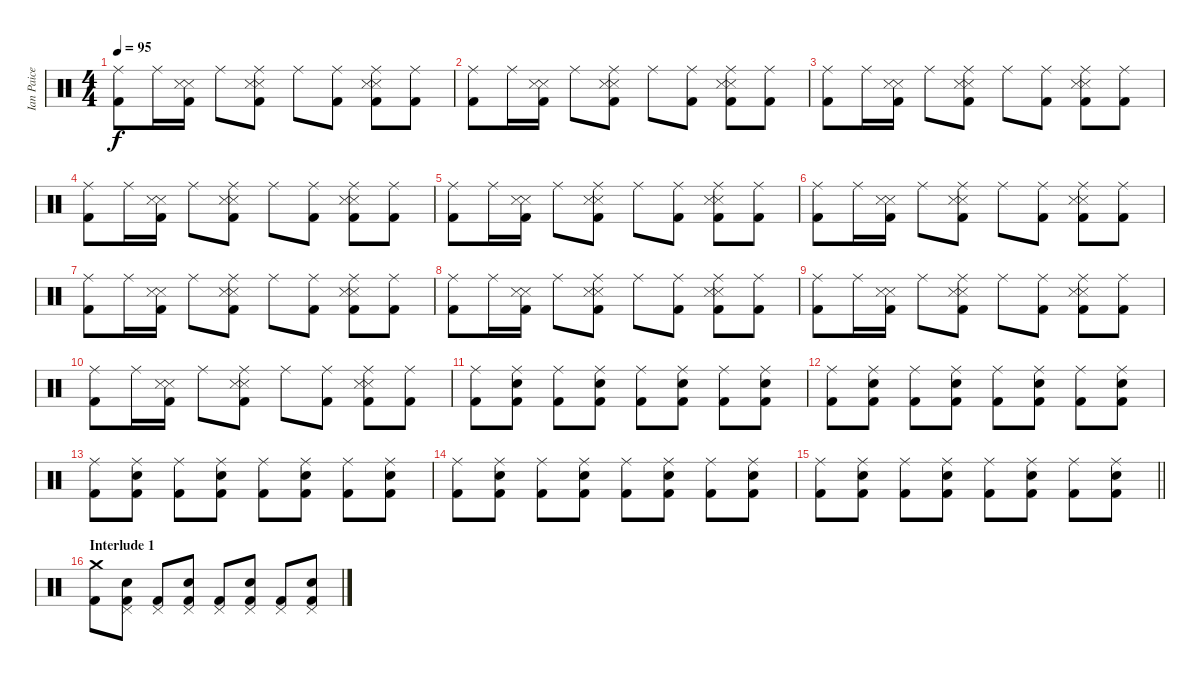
\track ("Ian Paice - Drums" "Ian Paice ") {instrument percussion}
\staff {score}
\articulation defaults
\ts (4 4)
\tempo 95
\clef neutral
\ks c
("Kick (hit) 2" "Ride (middle)").8{dy f} "Ride (middle)".16 ("Kick (hit) 2" "Snare (side stick) 3" "Metronome (hit)").16 "Ride (middle)".8 ("Kick (hit) 2" "Ride (middle)" "Snare (side stick) 3" "Metronome (hit)").8 "Ride (middle)".8 ("Kick (hit) 2" "Ride (middle)").8 ("Kick (hit) 2" "Ride (middle)" "Metronome (hit)" "Snare (side stick) 3").8 ("Kick (hit) 2" "Ride (middle)").8 |
("Kick (hit) 2" "Ride (middle)").8 "Ride (middle)".16 ("Kick (hit) 2" "Snare (side stick) 3" "Metronome (hit)").16 "Ride (middle)".8 ("Kick (hit) 2" "Ride (middle)" "Snare (side stick) 3" "Metronome (hit)").8 "Ride (middle)".8 ("Kick (hit) 2" "Ride (middle)").8 ("Kick (hit) 2" "Ride (middle)" "Metronome (hit)" "Snare (side stick) 3").8 ("Kick (hit) 2" "Ride (middle)").8 |
("Kick (hit) 2" "Ride (middle)").8 "Ride (middle)".16 ("Kick (hit) 2" "Snare (side stick) 3" "Metronome (hit)").16 "Ride (middle)".8 ("Kick (hit) 2" "Ride (middle)" "Snare (side stick) 3" "Metronome (hit)").8 "Ride (middle)".8 ("Kick (hit) 2" "Ride (middle)").8 ("Kick (hit) 2" "Ride (middle)" "Metronome (hit)" "Snare (side stick) 3").8 ("Kick (hit) 2" "Ride (middle)").8 |
("Kick (hit) 2" "Ride (middle)").8 "Ride (middle)".16 ("Kick (hit) 2" "Snare (side stick) 3" "Metronome (hit)").16 "Ride (middle)".8 ("Kick (hit) 2" "Ride (middle)" "Snare (side stick) 3" "Metronome (hit)").8 "Ride (middle)".8 ("Kick (hit) 2" "Ride (middle)").8 ("Kick (hit) 2" "Ride (middle)" "Metronome (hit)" "Snare (side stick) 3").8 ("Kick (hit) 2" "Ride (middle)").8 |
("Kick (hit) 2" "Ride (middle)").8 "Ride (middle)".16 ("Kick (hit) 2" "Snare (side stick) 3" "Metronome (hit)").16 "Ride (middle)".8 ("Kick (hit) 2" "Ride (middle)" "Snare (side stick) 3" "Metronome (hit)").8 "Ride (middle)".8 ("Kick (hit) 2" "Ride (middle)").8 ("Kick (hit) 2" "Ride (middle)" "Metronome (hit)" "Snare (side stick) 3").8 ("Kick (hit) 2" "Ride (middle)").8 |
("Kick (hit) 2" "Ride (middle)").8 "Ride (middle)".16 ("Kick (hit) 2" "Snare (side stick) 3" "Metronome (hit)").16 "Ride (middle)".8 ("Kick (hit) 2" "Ride (middle)" "Snare (side stick) 3" "Metronome (hit)").8 "Ride (middle)".8 ("Kick (hit) 2" "Ride (middle)").8 ("Kick (hit) 2" "Ride (middle)" "Metronome (hit)" "Snare (side stick) 3").8 ("Kick (hit) 2" "Ride (middle)").8 |
("Kick (hit) 2" "Ride (middle)").8 "Ride (middle)".16 ("Kick (hit) 2" "Snare (side stick) 3" "Metronome (hit)").16 "Ride (middle)".8 ("Kick (hit) 2" "Ride (middle)" "Snare (side stick) 3" "Metronome (hit)").8 "Ride (middle)".8 ("Kick (hit) 2" "Ride (middle)").8 ("Kick (hit) 2" "Ride (middle)" "Metronome (hit)" "Snare (side stick) 3").8 ("Kick (hit) 2" "Ride (middle)").8 |
("Kick (hit) 2" "Ride (middle)").8 "Ride (middle)".16 ("Kick (hit) 2" "Snare (side stick) 3" "Metronome (hit)").16 "Ride (middle)".8 ("Kick (hit) 2" "Ride (middle)" "Snare (side stick) 3" "Metronome (hit)").8 "Ride (middle)".8 ("Kick (hit) 2" "Ride (middle)").8 ("Kick (hit) 2" "Ride (middle)" "Metronome (hit)" "Snare (side stick) 3").8 ("Kick (hit) 2" "Ride (middle)").8 |
("Kick (hit) 2" "Ride (middle)").8 "Ride (middle)".16 ("Kick (hit) 2" "Snare (side stick) 3" "Metronome (hit)").16 "Ride (middle)".8 ("Kick (hit) 2" "Ride (middle)" "Snare (side stick) 3" "Metronome (hit)").8 "Ride (middle)".8 ("Kick (hit) 2" "Ride (middle)").8 ("Kick (hit) 2" "Ride (middle)" "Metronome (hit)" "Snare (side stick) 3").8 ("Kick (hit) 2" "Ride (middle)").8 |
("Kick (hit) 2" "Ride (middle)").8 "Ride (middle)".16 ("Kick (hit) 2" "Snare (side stick) 3" "Metronome (hit)").16 "Ride (middle)".8 ("Kick (hit) 2" "Ride (middle)" "Snare (side stick) 3" "Metronome (hit)").8 "Ride (middle)".8 ("Kick (hit) 2" "Ride (middle)").8 ("Kick (hit) 2" "Ride (middle)" "Metronome (hit)" "Snare (side stick) 3").8 ("Kick (hit) 2" "Ride (middle)").8 |
("Kick (hit) 2" "Ride (middle)").8 ("Kick (hit) 2" "Ride (middle)" "Electric Snare (hit)").8 ("Kick (hit) 2" "Ride (middle)").8 ("Kick (hit) 2" "Ride (middle)" "Electric Snare (hit)").8 ("Kick (hit) 2" "Ride (middle)").8 ("Kick (hit) 2" "Ride (middle)" "Electric Snare (hit)").8 ("Kick (hit) 2" "Ride (middle)").8 ("Kick (hit) 2" "Ride (middle)" "Electric Snare (hit)").8 |
("Kick (hit) 2" "Ride (middle)").8 ("Kick (hit) 2" "Ride (middle)" "Electric Snare (hit)").8 ("Kick (hit) 2" "Ride (middle)").8 ("Kick (hit) 2" "Ride (middle)" "Electric Snare (hit)").8 ("Kick (hit) 2" "Ride (middle)").8 ("Kick (hit) 2" "Ride (middle)" "Electric Snare (hit)").8 ("Kick (hit) 2" "Ride (middle)").8 ("Kick (hit) 2" "Ride (middle)" "Electric Snare (hit)").8 |
("Kick (hit) 2" "Ride (middle)").8 ("Kick (hit) 2" "Ride (middle)" "Electric Snare (hit)").8 ("Kick (hit) 2" "Ride (middle)").8 ("Kick (hit) 2" "Ride (middle)" "Electric Snare (hit)").8 ("Kick (hit) 2" "Ride (middle)").8 ("Kick (hit) 2" "Ride (middle)" "Electric Snare (hit)").8 ("Kick (hit) 2" "Ride (middle)").8 ("Kick (hit) 2" "Ride (middle)" "Electric Snare (hit)").8 |
("Kick (hit) 2" "Ride (middle)").8 ("Kick (hit) 2" "Ride (middle)" "Electric Snare (hit)").8 ("Kick (hit) 2" "Ride (middle)").8 ("Kick (hit) 2" "Ride (middle)" "Electric Snare (hit)").8 ("Kick (hit) 2" "Ride (middle)").8 ("Kick (hit) 2" "Ride (middle)" "Electric Snare (hit)").8 ("Kick (hit) 2" "Ride (middle)").8 ("Kick (hit) 2" "Ride (middle)" "Electric Snare (hit)").8 |
\barLineRight lightlight
("Kick (hit) 2" "Ride (middle)").8 ("Kick (hit) 2" "Ride (middle)" "Electric Snare (hit)").8 ("Kick (hit) 2" "Ride (middle)").8 ("Kick (hit) 2" "Ride (middle)" "Electric Snare (hit)").8 ("Kick (hit) 2" "Ride (middle)").8 ("Kick (hit) 2" "Ride (middle)" "Electric Snare (hit)").8 ("Kick (hit) 2" "Ride (middle)").8 ("Kick (hit) 2" "Ride (middle)" "Electric Snare (hit)").8 |
\section ("" "Interlude 1")
("Kick (hit) 2" "Crash medium (hit)").8 ("Kick (hit) 2" "Pedal Hi-Hat (hit)" "Electric Snare (hit)").8 ("Kick (hit) 2" "Pedal Hi-Hat (hit)").8 ("Kick (hit) 2" "Pedal Hi-Hat (hit)" "Electric Snare (hit)").8 ("Kick (hit) 2" "Pedal Hi-Hat (hit)").8 ("Kick (hit) 2" "Pedal Hi-Hat (hit)" "Electric Snare (hit)").8 ("Kick (hit) 2" "Pedal Hi-Hat (hit)").8 ("Kick (hit) 2" "Pedal Hi-Hat (hit)" "Electric Snare (hit)").8
